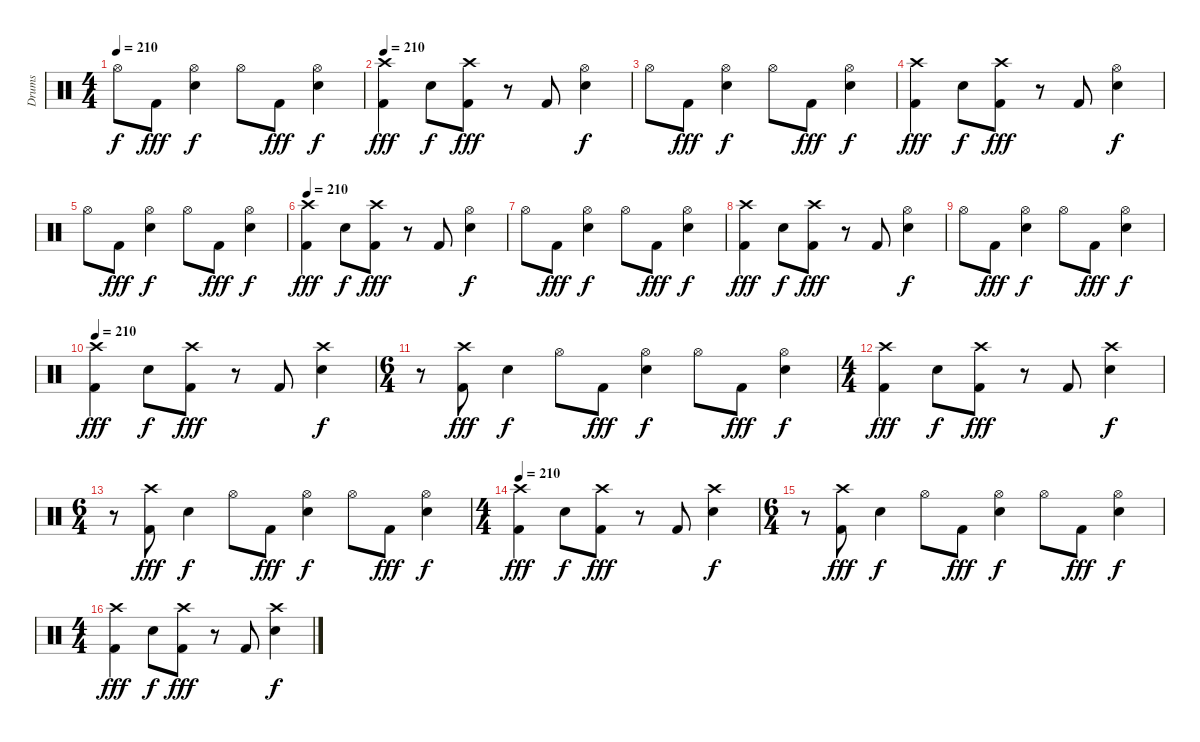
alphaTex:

\track ("Drums" "Drums") {instrument percussion}
\staff {score}
\articulation defaults
\ts (4 4)
\tempo 210
\clef neutral
\ks c "Hi-Hat (open)".8{dy f} "Kick (hit) 2".8{dy fff}
("Hi-Hat (open)" "Snare (hit) 2").4{dy f} "Hi-Hat (open)".8 "Kick (hit) 2".8{dy fff} ("Hi-Hat (open)" "Snare (hit) 2").4{dy f} |
\tempo 210
("Crash high (hit)" "Kick (hit) 2").4{dy fff} "Snare (hit) 2".8{dy f} ("Crash high (hit)" "Kick (hit) 2").8{dy fff} r.8 "Kick (hit) 2".8 ("Hi-Hat (open)" "Snare (hit) 2").4{dy f} |
"Hi-Hat (open)".8 "Kick (hit) 2".8{dy fff} ("Hi-Hat (open)" "Snare (hit) 2").4{dy f} "Hi-Hat (open)".8 "Kick (hit) 2".8{dy fff} ("Hi-Hat (open)" "Snare (hit) 2").4{dy f} |
("Crash high (hit)" "Kick (hit) 2").4{dy fff} "Snare (hit) 2".8{dy f} ("Crash high (hit)" "Kick (hit) 2").8{dy fff} r.8 "Kick (hit) 2".8 ("Hi-Hat (open)" "Snare (hit) 2").4{dy f} |
"Hi-Hat (open)".8 "Kick (hit) 2".8{dy fff} ("Hi-Hat (open)" "Snare (hit) 2").4{dy f} "Hi-Hat (open)".8 "Kick (hit) 2".8{dy fff} ("Hi-Hat (open)" "Snare (hit) 2").4{dy f} |
\tempo 210
("Crash high (hit)" "Kick (hit) 2").4{dy fff} "Snare (hit) 2".8{dy f} ("Crash high (hit)" "Kick (hit) 2").8{dy fff} r.8 "Kick (hit) 2".8 ("Hi-Hat (open)" "Snare (hit) 2").4{dy f} |
"Hi-Hat (open)".8 "Kick (hit) 2".8{dy fff} ("Hi-Hat (open)" "Snare (hit) 2").4{dy f} "Hi-Hat (open)".8 "Kick (hit) 2".8{dy fff} ("Hi-Hat (open)" "Snare (hit) 2").4{dy f} |
("Crash high (hit)" "Kick (hit) 2").4{dy fff} "Snare (hit) 2".8{dy f} ("Crash high (hit)" "Kick (hit) 2").8{dy fff} r.8 "Kick (hit) 2".8 ("Hi-Hat (open)" "Snare (hit) 2").4{dy f} |
"Hi-Hat (open)".8 "Kick (hit) 2".8{dy fff} ("Hi-Hat (open)" "Snare (hit) 2").4{dy f} "Hi-Hat (open)".8 "Kick (hit) 2".8{dy fff} ("Hi-Hat (open)" "Snare (hit) 2").4{dy f} |
\tempo 210
("Crash high (hit)" "Kick (hit) 2").4{dy fff} "Snare (hit) 2".8{dy f} ("Crash high (hit)" "Kick (hit) 2").8{dy fff} r.8 "Kick (hit) 2".8 ("Crash high (hit)" "Snare (hit) 2").4{dy f} |
\ts (6 4)
r.8 ("Crash high (hit)" "Kick (hit) 2").8{dy fff} "Snare (hit) 2".4{dy f} "Hi-Hat (open)".8 "Kick (hit) 2".8{dy fff} ("Hi-Hat (open)" "Snare (hit) 2").4{dy f} "Hi-Hat (open)".8 "Kick (hit) 2".8{dy fff} ("Hi-Hat (open)" "Snare (hit) 2").4{dy f} |
\ts (4 4)
("Crash high (hit)" "Kick (hit) 2").4{dy fff} "Snare (hit) 2".8{dy f} ("Crash high (hit)" "Kick (hit) 2").8{dy fff} r.8 "Kick (hit) 2".8 ("Crash high (hit)" "Snare (hit) 2").4{dy f} |
\ts (6 4)
r.8 ("Crash high (hit)" "Kick (hit) 2").8{dy fff} "Snare (hit) 2".4{dy f} "Hi-Hat (open)".8 "Kick (hit) 2".8{dy fff} ("Hi-Hat (open)" "Snare (hit) 2").4{dy f} "Hi-Hat (open)".8 "Kick (hit) 2".8{dy fff} ("Hi-Hat (open)" "Snare (hit) 2").4{dy f} |
\ts (4 4)
\tempo 210
("Crash high (hit)" "Kick (hit) 2").4{dy fff} "Snare (hit) 2".8{dy f} ("Crash high (hit)" "Kick (hit) 2").8{dy fff} r.8 "Kick (hit) 2".8 ("Crash high (hit)" "Snare (hit) 2").4{dy f} |
\ts (6 4)
r.8 ("Crash high (hit)" "Kick (hit) 2").8{dy fff} "Snare (hit) 2".4{dy f} "Hi-Hat (open)".8 "Kick (hit) 2".8{dy fff} ("Hi-Hat (open)" "Snare (hit) 2").4{dy f} "Hi-Hat (open)".8 "Kick (hit) 2".8{dy fff} ("Hi-Hat (open)" "Snare (hit) 2").4{dy f} |
\ts (4 4)
("Crash high (hit)" "Kick (hit) 2").4{dy fff} "Snare (hit) 2".8{dy f} ("Crash high (hit)" "Kick (hit) 2").8{dy fff} r.8 "Kick (hit) 2".8 ("Crash high (hit)" "Snare (hit) 2").4{dy f}
